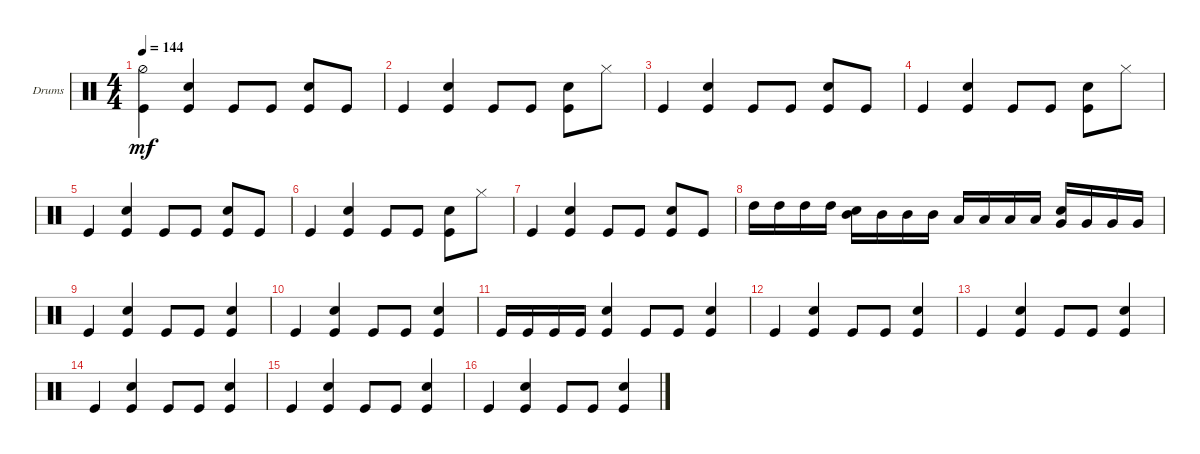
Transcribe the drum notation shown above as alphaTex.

\bracketExtendMode groupsimilarinstruments
\firstSystemTrackNameOrientation horizontal
\otherSystemsTrackNameOrientation horizontal
\track ("Drums" "Drums") {instrument percussion}
\staff {score}
\articulation defaults
\ts (4 4)
\tempo 144
\clef neutral
\ks c
("Kick (hit)" "Hi-Hat (half)").4{dy mf} ("Kick (hit)" "Snare (hit) 2").4 "Kick (hit)".8 "Kick (hit)".8 ("Kick (hit)" "Snare (hit) 2").8 "Kick (hit)".8 |
"Kick (hit)".4 ("Kick (hit)" "Snare (hit) 2").4 "Kick (hit)".8 "Kick (hit)".8 ("Kick (hit)" "Snare (hit) 2").8 "Hi-Hat (closed)".8 |
"Kick (hit)".4 ("Kick (hit)" "Snare (hit) 2").4 "Kick (hit)".8 "Kick (hit)".8 ("Kick (hit)" "Snare (hit) 2").8 "Kick (hit)".8 |
"Kick (hit)".4 ("Kick (hit)" "Snare (hit) 2").4 "Kick (hit)".8 "Kick (hit)".8 ("Kick (hit)" "Snare (hit) 2").8 "Hi-Hat (closed)".8 |
"Kick (hit)".4 ("Kick (hit)" "Snare (hit) 2").4 "Kick (hit)".8 "Kick (hit)".8 ("Kick (hit)" "Snare (hit) 2").8 "Kick (hit)".8 |
"Kick (hit)".4 ("Kick (hit)" "Snare (hit) 2").4 "Kick (hit)".8 "Kick (hit)".8 ("Kick (hit)" "Snare (hit) 2").8 "Hi-Hat (closed)".8 |
"Kick (hit)".4 ("Kick (hit)" "Snare (hit) 2").4 "Kick (hit)".8 "Kick (hit)".8 ("Kick (hit)" "Snare (hit) 2").8 "Kick (hit)".8 |
"High Tom (hit)".16 "High Tom (hit)".16 "High Tom (hit)".16 "High Tom (hit)".16 ("Mid Tom (hit)" "Snare (hit) 2").16 "Mid Tom (hit)".16 "Mid Tom (hit)".16 "Mid Tom (hit)".16 "Low Tom (hit)".16 "Low Tom (hit)".16 "Low Tom (hit)".16 "Low Tom (hit)".16 ("Very Low Tom (hit)" "Snare (hit) 2").16 "Very Low Tom (hit)".16 "Very Low Tom (hit)".16 "Very Low Tom (hit)".16 |
"Kick (hit)".4 ("Kick (hit)" "Snare (hit) 2").4 "Kick (hit)".8 "Kick (hit)".8 ("Kick (hit)" "Snare (hit) 2").4 |
"Kick (hit)".4 ("Kick (hit)" "Snare (hit) 2").4 "Kick (hit)".8 "Kick (hit)".8 ("Kick (hit)" "Snare (hit) 2").4 |
"Kick (hit)".16 "Kick (hit)".16 "Kick (hit)".16 "Kick (hit)".16 ("Kick (hit)" "Snare (hit) 2").4 "Kick (hit)".8 "Kick (hit)".8 ("Kick (hit)" "Snare (hit) 2").4 |
"Kick (hit)".4 ("Kick (hit)" "Snare (hit) 2").4 "Kick (hit)".8 "Kick (hit)".8 ("Kick (hit)" "Snare (hit) 2").4 |
"Kick (hit)".4 ("Kick (hit)" "Snare (hit) 2").4 "Kick (hit)".8 "Kick (hit)".8 ("Kick (hit)" "Snare (hit) 2").4 |
"Kick (hit)".4 ("Kick (hit)" "Snare (hit) 2").4 "Kick (hit)".8 "Kick (hit)".8 ("Kick (hit)" "Snare (hit) 2").4 |
"Kick (hit)".4 ("Kick (hit)" "Snare (hit) 2").4 "Kick (hit)".8 "Kick (hit)".8 ("Kick (hit)" "Snare (hit) 2").4 |
"Kick (hit)".4 ("Kick (hit)" "Snare (hit) 2").4 "Kick (hit)".8 "Kick (hit)".8 ("Kick (hit)" "Snare (hit) 2").4
